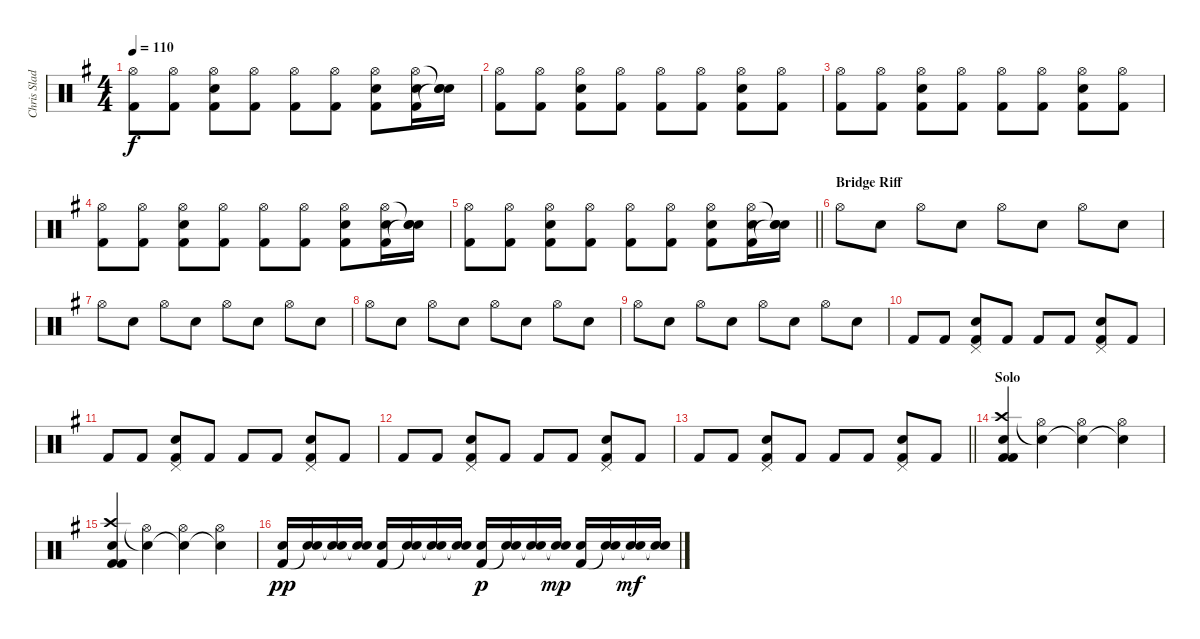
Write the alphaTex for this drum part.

\track ("Chris Slade (Percussion)" "Chris Slad") {instrument percussion}
\staff {score}
\articulation defaults
\ts (4 4)
\tempo 110
\clef neutral
\ks g
("Hi-Hat (open)" "Kick (hit) 2").8{dy f} ("Hi-Hat (open)" "Kick (hit) 2").8 ("Hi-Hat (open)" "Snare (hit) 2" "Kick (hit) 2").8 ("Hi-Hat (open)" "Kick (hit) 2").8 ("Hi-Hat (open)" "Kick (hit) 2").8 ("Hi-Hat (open)" "Kick (hit) 2").8 ("Hi-Hat (open)" "Snare (hit) 2" "Kick (hit) 2").8 ("Hi-Hat (open)" "Snare (hit) 2" "Kick (hit) 2").16 ("Snare (hit)"{t} "Snare (hit) 2" "Snare (hit)"{t}).16 |
("Hi-Hat (open)" "Kick (hit) 2").8 ("Hi-Hat (open)" "Kick (hit) 2").8 ("Hi-Hat (open)" "Snare (hit) 2" "Kick (hit) 2").8 ("Hi-Hat (open)" "Kick (hit) 2").8 ("Hi-Hat (open)" "Kick (hit) 2").8 ("Hi-Hat (open)" "Kick (hit) 2").8 ("Hi-Hat (open)" "Snare (hit) 2" "Kick (hit) 2").8 ("Hi-Hat (open)" "Kick (hit) 2").8 |
("Hi-Hat (open)" "Kick (hit) 2").8 ("Hi-Hat (open)" "Kick (hit) 2").8 ("Hi-Hat (open)" "Snare (hit) 2" "Kick (hit) 2").8 ("Hi-Hat (open)" "Kick (hit) 2").8 ("Hi-Hat (open)" "Kick (hit) 2").8 ("Hi-Hat (open)" "Kick (hit) 2").8 ("Hi-Hat (open)" "Snare (hit) 2" "Kick (hit) 2").8 ("Hi-Hat (open)" "Kick (hit) 2").8 |
("Hi-Hat (open)" "Kick (hit) 2").8 ("Hi-Hat (open)" "Kick (hit) 2").8 ("Hi-Hat (open)" "Snare (hit) 2" "Kick (hit) 2").8 ("Hi-Hat (open)" "Kick (hit) 2").8 ("Hi-Hat (open)" "Kick (hit) 2").8 ("Hi-Hat (open)" "Kick (hit) 2").8 ("Hi-Hat (open)" "Snare (hit) 2" "Kick (hit) 2").8 ("Hi-Hat (open)" "Snare (hit) 2" "Kick (hit) 2").16 ("Snare (hit)"{t} "Snare (hit) 2" "Snare (hit)"{t}).16 |
\barLineRight lightlight
("Hi-Hat (open)" "Kick (hit) 2").8 ("Hi-Hat (open)" "Kick (hit) 2").8 ("Hi-Hat (open)" "Snare (hit) 2" "Kick (hit) 2").8 ("Hi-Hat (open)" "Kick (hit) 2").8 ("Hi-Hat (open)" "Kick (hit) 2").8 ("Hi-Hat (open)" "Kick (hit) 2").8 ("Hi-Hat (open)" "Snare (hit) 2" "Kick (hit) 2").8 ("Hi-Hat (open)" "Snare (hit) 2" "Kick (hit) 2").16 ("Snare (hit)"{t} "Snare (hit) 2" "Snare (hit)"{t}).16 |
\section ("" "Bridge Riff")
"Hi-Hat (open)".8 "Snare (hit) 2".8 "Hi-Hat (open)".8 "Snare (hit) 2".8 "Hi-Hat (open)".8 "Snare (hit) 2".8 "Hi-Hat (open)".8 "Snare (hit) 2".8 |
"Hi-Hat (open)".8 "Snare (hit) 2".8 "Hi-Hat (open)".8 "Snare (hit) 2".8 "Hi-Hat (open)".8 "Snare (hit) 2".8 "Hi-Hat (open)".8 "Snare (hit) 2".8 |
"Hi-Hat (open)".8 "Snare (hit) 2".8 "Hi-Hat (open)".8 "Snare (hit) 2".8 "Hi-Hat (open)".8 "Snare (hit) 2".8 "Hi-Hat (open)".8 "Snare (hit) 2".8 |
"Hi-Hat (open)".8 "Snare (hit) 2".8 "Hi-Hat (open)".8 "Snare (hit) 2".8 "Hi-Hat (open)".8 "Snare (hit) 2".8 "Hi-Hat (open)".8 "Snare (hit) 2".8 |
"Kick (hit) 2".8 "Kick (hit) 2".8 ("Pedal Hi-Hat (hit)" "Snare (hit) 2" "Kick (hit) 2").8 "Kick (hit) 2".8 "Kick (hit) 2".8 "Kick (hit) 2".8 ("Pedal Hi-Hat (hit)" "Snare (hit) 2" "Kick (hit) 2").8 "Kick (hit) 2".8 |
"Kick (hit) 2".8 "Kick (hit) 2".8 ("Pedal Hi-Hat (hit)" "Snare (hit) 2" "Kick (hit) 2").8 "Kick (hit) 2".8 "Kick (hit) 2".8 "Kick (hit) 2".8 ("Pedal Hi-Hat (hit)" "Snare (hit) 2" "Kick (hit) 2").8 "Kick (hit) 2".8 |
"Kick (hit) 2".8 "Kick (hit) 2".8 ("Pedal Hi-Hat (hit)" "Snare (hit) 2" "Kick (hit) 2").8 "Kick (hit) 2".8 "Kick (hit) 2".8 "Kick (hit) 2".8 ("Pedal Hi-Hat (hit)" "Snare (hit) 2" "Kick (hit) 2").8 "Kick (hit) 2".8 |
\barLineRight lightlight "Kick (hit) 2".8 "Kick (hit) 2".8
("Pedal Hi-Hat (hit)" "Snare (hit) 2" "Kick (hit) 2").8 "Kick (hit) 2".8 "Kick (hit) 2".8 "Kick (hit) 2".8 ("Pedal Hi-Hat (hit)" "Snare (hit) 2" "Kick (hit) 2").8 "Kick (hit) 2".8 |
\section ("" "Solo")
("Crash high (hit)" "Electric Snare (hit)" "Kick (hit) 2" "Kick (hit) 2").4 ("Snare (hit)"{t} "Hi-Hat (open)").4 ("Snare (hit)"{t} "Hi-Hat (open)").4 ("Snare (hit)"{t} "Hi-Hat (open)").4 |
("Crash high (hit)" "Electric Snare (hit)" "Kick (hit) 2" "Kick (hit) 2").4 ("Snare (hit)"{t} "Hi-Hat (open)").4 ("Snare (hit)"{t} "Hi-Hat (open)").4 ("Snare (hit)"{t} "Hi-Hat (open)").4 |
("Snare (hit) 2" "Kick (hit) 2").16{dy pp} ("Snare (hit) 2" "Snare (hit)"{t}).16 ("Snare (hit) 2" "Snare (hit)"{t}).16 ("Snare (hit) 2" "Snare (hit)"{t}).16 ("Snare (hit) 2" "Kick (hit) 2").16 ("Snare (hit) 2" "Snare (hit)"{t}).16 ("Snare (hit) 2" "Snare (hit)"{t}).16 ("Snare (hit) 2" "Snare (hit)"{t}).16 ("Snare (hit) 2" "Kick (hit) 2").16{dy p} ("Snare (hit) 2" "Snare (hit)"{t}).16 ("Snare (hit) 2" "Snare (hit)"{t}).16 ("Snare (hit) 2" "Snare (hit)"{t}).16{dy mp} ("Snare (hit) 2" "Kick (hit) 2").16 ("Snare (hit) 2" "Snare (hit)"{t}).16 ("Snare (hit) 2" "Snare (hit)"{t}).16{dy mf} ("Snare (hit) 2" "Snare (hit)"{t}).16
